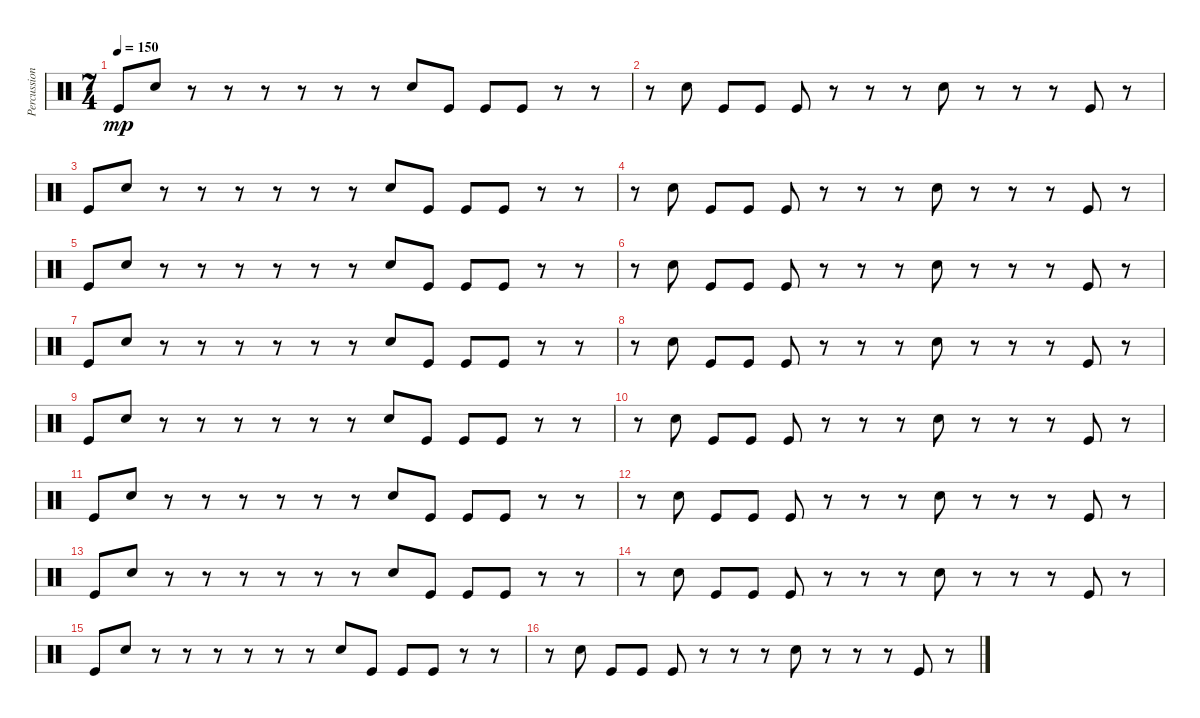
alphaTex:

\track ("Percussion" "Percussion") {instrument percussion}
\staff {score}
\articulation defaults
\ts (7 4)
\tempo 150
\clef neutral
\ks c "Kick (hit)".8{dy mp} "Electric Snare (hit)".8
r.8 r.8 r.8 r.8 r.8 r.8 "Electric Snare (hit)".8 "Kick (hit)".8 "Kick (hit)".8 "Kick (hit)".8 r.8 r.8 |
r.8 "Electric Snare (hit)".8 "Kick (hit)".8 "Kick (hit)".8 "Kick (hit)".8 r.8 r.8 r.8 "Electric Snare (hit)".8 r.8 r.8 r.8 "Kick (hit)".8 r.8 |
"Kick (hit)".8 "Electric Snare (hit)".8 r.8 r.8 r.8 r.8 r.8 r.8 "Electric Snare (hit)".8 "Kick (hit)".8 "Kick (hit)".8 "Kick (hit)".8 r.8 r.8 |
r.8 "Electric Snare (hit)".8 "Kick (hit)".8 "Kick (hit)".8 "Kick (hit)".8 r.8 r.8 r.8 "Electric Snare (hit)".8 r.8 r.8 r.8 "Kick (hit)".8 r.8 |
"Kick (hit)".8 "Electric Snare (hit)".8 r.8 r.8 r.8 r.8 r.8 r.8 "Electric Snare (hit)".8 "Kick (hit)".8 "Kick (hit)".8 "Kick (hit)".8 r.8 r.8 |
r.8 "Electric Snare (hit)".8 "Kick (hit)".8 "Kick (hit)".8 "Kick (hit)".8 r.8 r.8 r.8 "Electric Snare (hit)".8 r.8 r.8 r.8 "Kick (hit)".8 r.8 |
"Kick (hit)".8 "Electric Snare (hit)".8 r.8 r.8 r.8 r.8 r.8 r.8 "Electric Snare (hit)".8 "Kick (hit)".8 "Kick (hit)".8 "Kick (hit)".8 r.8 r.8 |
r.8 "Electric Snare (hit)".8 "Kick (hit)".8 "Kick (hit)".8 "Kick (hit)".8 r.8 r.8 r.8 "Electric Snare (hit)".8 r.8 r.8 r.8 "Kick (hit)".8 r.8 |
"Kick (hit)".8 "Electric Snare (hit)".8 r.8 r.8 r.8 r.8 r.8 r.8 "Electric Snare (hit)".8 "Kick (hit)".8 "Kick (hit)".8 "Kick (hit)".8 r.8 r.8 |
r.8 "Electric Snare (hit)".8 "Kick (hit)".8 "Kick (hit)".8 "Kick (hit)".8 r.8 r.8 r.8 "Electric Snare (hit)".8 r.8 r.8 r.8 "Kick (hit)".8 r.8 |
"Kick (hit)".8 "Electric Snare (hit)".8 r.8 r.8 r.8 r.8 r.8 r.8 "Electric Snare (hit)".8 "Kick (hit)".8 "Kick (hit)".8 "Kick (hit)".8 r.8 r.8 |
r.8 "Electric Snare (hit)".8 "Kick (hit)".8 "Kick (hit)".8 "Kick (hit)".8 r.8 r.8 r.8 "Electric Snare (hit)".8 r.8 r.8 r.8 "Kick (hit)".8 r.8 |
"Kick (hit)".8 "Electric Snare (hit)".8 r.8 r.8 r.8 r.8 r.8 r.8 "Electric Snare (hit)".8 "Kick (hit)".8 "Kick (hit)".8 "Kick (hit)".8 r.8 r.8 |
r.8 "Electric Snare (hit)".8 "Kick (hit)".8 "Kick (hit)".8 "Kick (hit)".8 r.8 r.8 r.8 "Electric Snare (hit)".8 r.8 r.8 r.8 "Kick (hit)".8 r.8 |
"Kick (hit)".8 "Electric Snare (hit)".8 r.8 r.8 r.8 r.8 r.8 r.8 "Electric Snare (hit)".8 "Kick (hit)".8 "Kick (hit)".8 "Kick (hit)".8 r.8 r.8 |
r.8 "Electric Snare (hit)".8 "Kick (hit)".8 "Kick (hit)".8 "Kick (hit)".8 r.8 r.8 r.8 "Electric Snare (hit)".8 r.8 r.8 r.8 "Kick (hit)".8 r.8
